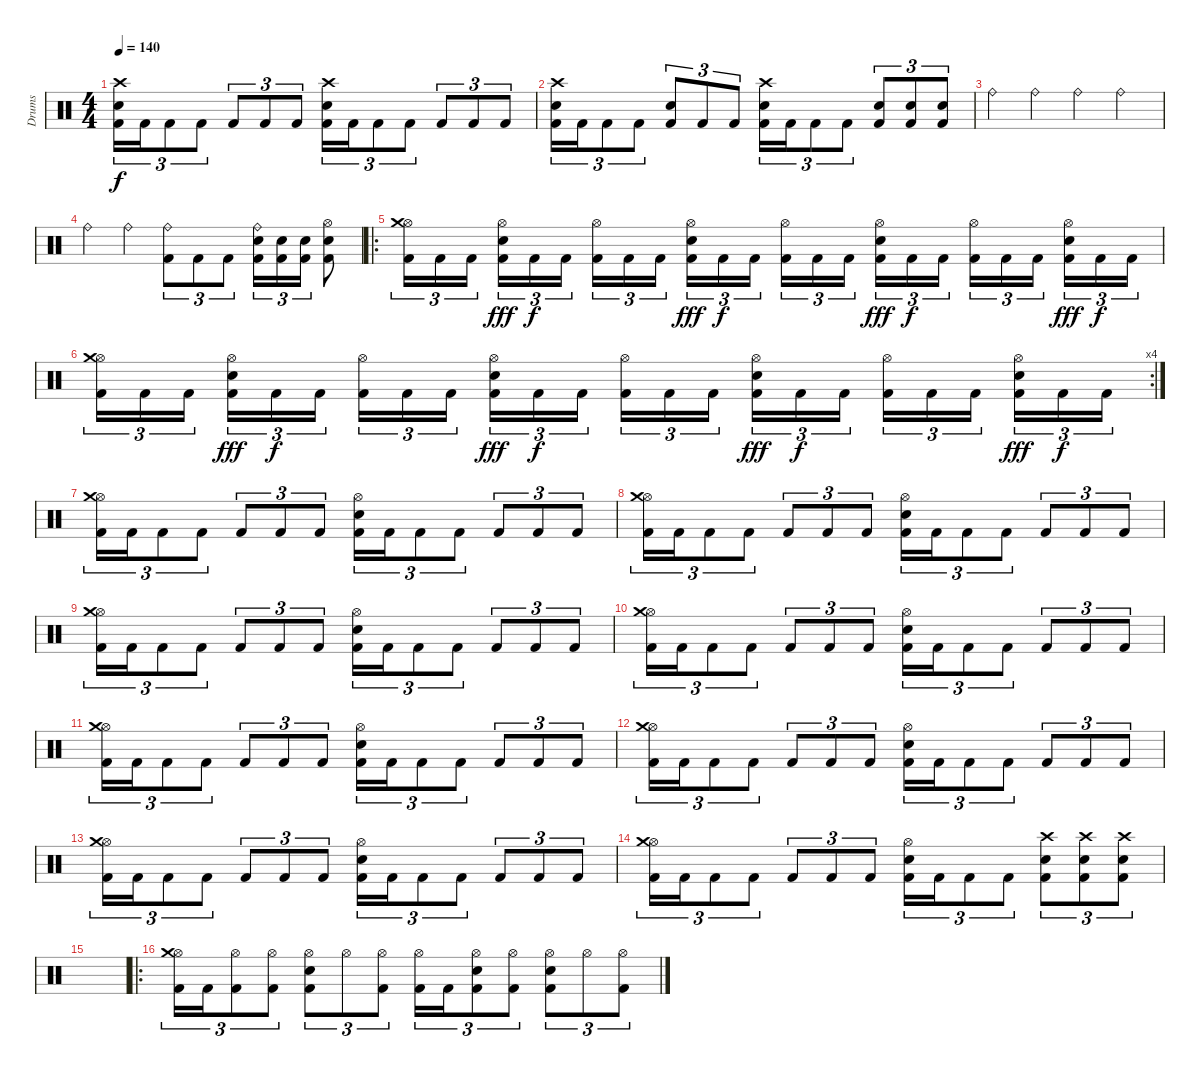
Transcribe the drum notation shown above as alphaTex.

\track ("Drums" "Drums") {instrument percussion}
\staff {score}
\articulation defaults
\ts (4 4)
\tempo 140
\clef neutral
\ks c
("Crash high (hit)" "Snare (hit) 2" "Kick (hit) 2").16{tu (3 2) dy f} "Kick (hit) 2".16{tu (3 2)} "Kick (hit) 2".8{tu (3 2)} "Kick (hit) 2".8{tu (3 2)} "Kick (hit) 2".8{tu (3 2)} "Kick (hit) 2".8{tu (3 2)} "Kick (hit) 2".8{tu (3 2)} ("Crash high (hit)" "Snare (hit) 2" "Kick (hit) 2").16{tu (3 2)} "Kick (hit) 2".16{tu (3 2)} "Kick (hit) 2".8{tu (3 2)} "Kick (hit) 2".8{tu (3 2)} "Kick (hit) 2".8{tu (3 2)} "Kick (hit) 2".8{tu (3 2)} "Kick (hit) 2".8{tu (3 2)} |
("Crash high (hit)" "Snare (hit) 2" "Kick (hit) 2").16{tu (3 2)} "Kick (hit) 2".16{tu (3 2)} "Kick (hit) 2".8{tu (3 2)} "Kick (hit) 2".8{tu (3 2)} ("Snare (hit) 2" "Kick (hit) 2").8{tu (3 2)} "Kick (hit) 2".8{tu (3 2)} "Kick (hit) 2".8{tu (3 2)} ("Crash high (hit)" "Snare (hit) 2" "Kick (hit) 2").16{tu (3 2)} "Kick (hit) 2".16{tu (3 2)} "Kick (hit) 2".8{tu (3 2)} "Kick (hit) 2".8{tu (3 2)} ("Snare (hit) 2" "Kick (hit) 2").8{tu (3 2)} ("Snare (hit) 2" "Kick (hit) 2").8{tu (3 2)} ("Snare (hit) 2" "Kick (hit) 2").8{tu (3 2)} |
"Ride (bell)".4 "Ride (bell)".4 "Ride (bell)".4 "Ride (bell)".4 |
"Ride (bell)".4 "Ride (bell)".4 ("Ride (bell)" "Kick (hit) 2").8{tu (3 2)} "Kick (hit) 2".8{tu (3 2)} "Kick (hit) 2".8{tu (3 2)} ("Ride (bell)" "Snare (hit) 2" "Kick (hit) 2").16{tu (3 2)} ("Snare (hit) 2" "Kick (hit) 2").16{tu (3 2)} ("Snare (hit) 2" "Kick (hit) 2").16{tu (3 2)} ("Hi-Hat (open)" "Snare (hit) 2" "Kick (hit) 2").8 |
\ro
("Hi-Hat (open)" "Crash medium (hit)" "Kick (hit) 2").16{tu (3 2)} "Kick (hit) 2".16{tu (3 2)} "Kick (hit) 2".16{tu (3 2)} ("Hi-Hat (open)" "Snare (hit) 2" "Kick (hit) 2").16{tu (3 2) dy fff} "Kick (hit) 2".16{tu (3 2) dy f} "Kick (hit) 2".16{tu (3 2)} ("Hi-Hat (open)" "Kick (hit) 2").16{tu (3 2)} "Kick (hit) 2".16{tu (3 2)} "Kick (hit) 2".16{tu (3 2)} ("Hi-Hat (open)" "Snare (hit) 2" "Kick (hit) 2").16{tu (3 2) dy fff} "Kick (hit) 2".16{tu (3 2) dy f} "Kick (hit) 2".16{tu (3 2)} ("Hi-Hat (open)" "Kick (hit) 2").16{tu (3 2)} "Kick (hit) 2".16{tu (3 2)} "Kick (hit) 2".16{tu (3 2)} ("Hi-Hat (open)" "Snare (hit) 2" "Kick (hit) 2").16{tu (3 2) dy fff} "Kick (hit) 2".16{tu (3 2) dy f} "Kick (hit) 2".16{tu (3 2)} ("Hi-Hat (open)" "Kick (hit) 2").16{tu (3 2)} "Kick (hit) 2".16{tu (3 2)} "Kick (hit) 2".16{tu (3 2)} ("Hi-Hat (open)" "Snare (hit) 2" "Kick (hit) 2").16{tu (3 2) dy fff} "Kick (hit) 2".16{tu (3 2) dy f} "Kick (hit) 2".16{tu (3 2)} |
\rc 4
("Hi-Hat (open)" "Crash medium (hit)" "Kick (hit) 2").16{tu (3 2)} "Kick (hit) 2".16{tu (3 2)} "Kick (hit) 2".16{tu (3 2)} ("Hi-Hat (open)" "Snare (hit) 2" "Kick (hit) 2").16{tu (3 2) dy fff} "Kick (hit) 2".16{tu (3 2) dy f} "Kick (hit) 2".16{tu (3 2)} ("Hi-Hat (open)" "Kick (hit) 2").16{tu (3 2)} "Kick (hit) 2".16{tu (3 2)} "Kick (hit) 2".16{tu (3 2)} ("Hi-Hat (open)" "Snare (hit) 2" "Kick (hit) 2").16{tu (3 2) dy fff} "Kick (hit) 2".16{tu (3 2) dy f} "Kick (hit) 2".16{tu (3 2)} ("Hi-Hat (open)" "Kick (hit) 2").16{tu (3 2)} "Kick (hit) 2".16{tu (3 2)} "Kick (hit) 2".16{tu (3 2)} ("Hi-Hat (open)" "Snare (hit) 2" "Kick (hit) 2").16{tu (3 2) dy fff} "Kick (hit) 2".16{tu (3 2) dy f} "Kick (hit) 2".16{tu (3 2)} ("Hi-Hat (open)" "Kick (hit) 2").16{tu (3 2)} "Kick (hit) 2".16{tu (3 2)} "Kick (hit) 2".16{tu (3 2)} ("Hi-Hat (open)" "Snare (hit) 2" "Kick (hit) 2").16{tu (3 2) dy fff} "Kick (hit) 2".16{tu (3 2) dy f} "Kick (hit) 2".16{tu (3 2)} |
("Hi-Hat (open)" "Crash medium (hit)" "Kick (hit) 2").16{tu (3 2)} "Kick (hit) 2".16{tu (3 2)} "Kick (hit) 2".8{tu (3 2)} "Kick (hit) 2".8{tu (3 2)} "Kick (hit) 2".8{tu (3 2)} "Kick (hit) 2".8{tu (3 2)} "Kick (hit) 2".8{tu (3 2)} ("Hi-Hat (open)" "Snare (hit) 2" "Kick (hit) 2").16{tu (3 2)} "Kick (hit) 2".16{tu (3 2)} "Kick (hit) 2".8{tu (3 2)} "Kick (hit) 2".8{tu (3 2)} "Kick (hit) 2".8{tu (3 2)} "Kick (hit) 2".8{tu (3 2)} "Kick (hit) 2".8{tu (3 2)} |
("Hi-Hat (open)" "Crash medium (hit)" "Kick (hit) 2").16{tu (3 2)} "Kick (hit) 2".16{tu (3 2)} "Kick (hit) 2".8{tu (3 2)} "Kick (hit) 2".8{tu (3 2)} "Kick (hit) 2".8{tu (3 2)} "Kick (hit) 2".8{tu (3 2)} "Kick (hit) 2".8{tu (3 2)} ("Hi-Hat (open)" "Snare (hit) 2" "Kick (hit) 2").16{tu (3 2)} "Kick (hit) 2".16{tu (3 2)} "Kick (hit) 2".8{tu (3 2)} "Kick (hit) 2".8{tu (3 2)} "Kick (hit) 2".8{tu (3 2)} "Kick (hit) 2".8{tu (3 2)} "Kick (hit) 2".8{tu (3 2)} |
("Hi-Hat (open)" "Crash medium (hit)" "Kick (hit) 2").16{tu (3 2)} "Kick (hit) 2".16{tu (3 2)} "Kick (hit) 2".8{tu (3 2)} "Kick (hit) 2".8{tu (3 2)} "Kick (hit) 2".8{tu (3 2)} "Kick (hit) 2".8{tu (3 2)} "Kick (hit) 2".8{tu (3 2)} ("Hi-Hat (open)" "Snare (hit) 2" "Kick (hit) 2").16{tu (3 2)} "Kick (hit) 2".16{tu (3 2)} "Kick (hit) 2".8{tu (3 2)} "Kick (hit) 2".8{tu (3 2)} "Kick (hit) 2".8{tu (3 2)} "Kick (hit) 2".8{tu (3 2)} "Kick (hit) 2".8{tu (3 2)} |
("Hi-Hat (open)" "Crash medium (hit)" "Kick (hit) 2").16{tu (3 2)} "Kick (hit) 2".16{tu (3 2)} "Kick (hit) 2".8{tu (3 2)} "Kick (hit) 2".8{tu (3 2)} "Kick (hit) 2".8{tu (3 2)} "Kick (hit) 2".8{tu (3 2)} "Kick (hit) 2".8{tu (3 2)} ("Hi-Hat (open)" "Snare (hit) 2" "Kick (hit) 2").16{tu (3 2)} "Kick (hit) 2".16{tu (3 2)} "Kick (hit) 2".8{tu (3 2)} "Kick (hit) 2".8{tu (3 2)} "Kick (hit) 2".8{tu (3 2)} "Kick (hit) 2".8{tu (3 2)} "Kick (hit) 2".8{tu (3 2)} |
("Hi-Hat (open)" "Crash medium (hit)" "Kick (hit) 2").16{tu (3 2)} "Kick (hit) 2".16{tu (3 2)} "Kick (hit) 2".8{tu (3 2)} "Kick (hit) 2".8{tu (3 2)} "Kick (hit) 2".8{tu (3 2)} "Kick (hit) 2".8{tu (3 2)} "Kick (hit) 2".8{tu (3 2)} ("Hi-Hat (open)" "Snare (hit) 2" "Kick (hit) 2").16{tu (3 2)} "Kick (hit) 2".16{tu (3 2)} "Kick (hit) 2".8{tu (3 2)} "Kick (hit) 2".8{tu (3 2)} "Kick (hit) 2".8{tu (3 2)} "Kick (hit) 2".8{tu (3 2)} "Kick (hit) 2".8{tu (3 2)} |
("Hi-Hat (open)" "Crash medium (hit)" "Kick (hit) 2").16{tu (3 2)} "Kick (hit) 2".16{tu (3 2)} "Kick (hit) 2".8{tu (3 2)} "Kick (hit) 2".8{tu (3 2)} "Kick (hit) 2".8{tu (3 2)} "Kick (hit) 2".8{tu (3 2)} "Kick (hit) 2".8{tu (3 2)} ("Hi-Hat (open)" "Snare (hit) 2" "Kick (hit) 2").16{tu (3 2)} "Kick (hit) 2".16{tu (3 2)} "Kick (hit) 2".8{tu (3 2)} "Kick (hit) 2".8{tu (3 2)} "Kick (hit) 2".8{tu (3 2)} "Kick (hit) 2".8{tu (3 2)} "Kick (hit) 2".8{tu (3 2)} |
("Hi-Hat (open)" "Crash medium (hit)" "Kick (hit) 2").16{tu (3 2)} "Kick (hit) 2".16{tu (3 2)} "Kick (hit) 2".8{tu (3 2)} "Kick (hit) 2".8{tu (3 2)} "Kick (hit) 2".8{tu (3 2)} "Kick (hit) 2".8{tu (3 2)} "Kick (hit) 2".8{tu (3 2)} ("Hi-Hat (open)" "Snare (hit) 2" "Kick (hit) 2").16{tu (3 2)} "Kick (hit) 2".16{tu (3 2)} "Kick (hit) 2".8{tu (3 2)} "Kick (hit) 2".8{tu (3 2)} "Kick (hit) 2".8{tu (3 2)} "Kick (hit) 2".8{tu (3 2)} "Kick (hit) 2".8{tu (3 2)} |
("Hi-Hat (open)" "Crash medium (hit)" "Kick (hit) 2").16{tu (3 2)} "Kick (hit) 2".16{tu (3 2)} "Kick (hit) 2".8{tu (3 2)} "Kick (hit) 2".8{tu (3 2)} "Kick (hit) 2".8{tu (3 2)} "Kick (hit) 2".8{tu (3 2)} "Kick (hit) 2".8{tu (3 2)} ("Hi-Hat (open)" "Snare (hit) 2" "Kick (hit) 2").16{tu (3 2)} "Kick (hit) 2".16{tu (3 2)} "Kick (hit) 2".8{tu (3 2)} "Kick (hit) 2".8{tu (3 2)} ("Crash high (hit)" "Snare (hit) 2" "Kick (hit) 2").8{tu (3 2)} ("Crash high (hit)" "Snare (hit) 2" "Kick (hit) 2").8{tu (3 2)} ("Crash high (hit)" "Snare (hit) 2" "Kick (hit) 2").8{tu (3 2)} |
|
\ro
("Hi-Hat (open)" "Crash medium (hit)" "Kick (hit) 2").16{tu (3 2)} "Kick (hit) 2".16{tu (3 2)} ("Hi-Hat (open)" "Kick (hit) 2").8{tu (3 2)} ("Hi-Hat (open)" "Kick (hit) 2").8{tu (3 2)} ("Hi-Hat (open)" "Snare (hit) 2" "Kick (hit) 2").8{tu (3 2)} "Hi-Hat (open)".8{tu (3 2)} ("Hi-Hat (open)" "Kick (hit) 2").8{tu (3 2)} ("Hi-Hat (open)" "Kick (hit) 2").16{tu (3 2)} "Kick (hit) 2".16{tu (3 2)} ("Hi-Hat (open)" "Snare (hit) 2" "Kick (hit) 2").8{tu (3 2)} ("Hi-Hat (open)" "Kick (hit) 2").8{tu (3 2)} ("Hi-Hat (open)" "Snare (hit) 2" "Kick (hit) 2").8{tu (3 2)} "Hi-Hat (open)".8{tu (3 2)} ("Hi-Hat (open)" "Kick (hit) 2").8{tu (3 2)}
